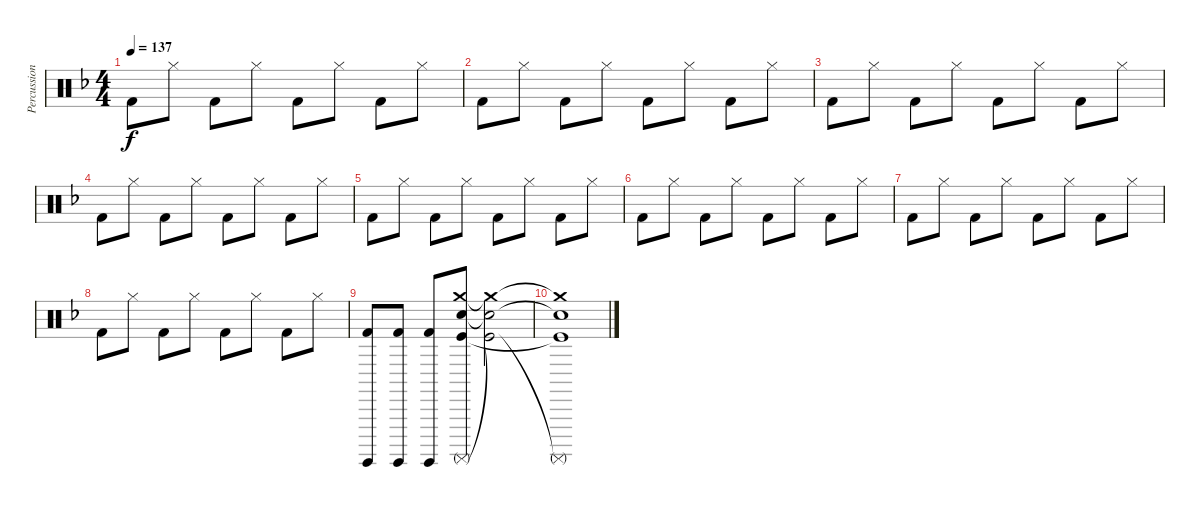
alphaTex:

\track ("Percussion" "Percussion") {instrument percussion}
\staff {score}
\articulation defaults
\ts (4 4)
\tempo 137
\clef neutral
\ks f "Kick (hit) 2".8{dy f} "Hi-Hat (closed)".8 "Kick (hit) 2".8 "Hi-Hat (closed)".8 "Kick (hit) 2".8 "Hi-Hat (closed)".8 "Kick (hit) 2".8 "Hi-Hat (closed)".8
|
"Kick (hit) 2".8 "Hi-Hat (closed)".8 "Kick (hit) 2".8 "Hi-Hat (closed)".8 "Kick (hit) 2".8 "Hi-Hat (closed)".8 "Kick (hit) 2".8 "Hi-Hat (closed)".8 |
"Kick (hit) 2".8 "Hi-Hat (closed)".8 "Kick (hit) 2".8 "Hi-Hat (closed)".8 "Kick (hit) 2".8 "Hi-Hat (closed)".8 "Kick (hit) 2".8 "Hi-Hat (closed)".8 |
"Kick (hit) 2".8 "Hi-Hat (closed)".8 "Kick (hit) 2".8 "Hi-Hat (closed)".8 "Kick (hit) 2".8 "Hi-Hat (closed)".8 "Kick (hit) 2".8 "Hi-Hat (closed)".8 |
"Kick (hit) 2".8 "Hi-Hat (closed)".8 "Kick (hit) 2".8 "Hi-Hat (closed)".8 "Kick (hit) 2".8 "Hi-Hat (closed)".8 "Kick (hit) 2".8 "Hi-Hat (closed)".8 |
"Kick (hit) 2".8 "Hi-Hat (closed)".8 "Kick (hit) 2".8 "Hi-Hat (closed)".8 "Kick (hit) 2".8 "Hi-Hat (closed)".8 "Kick (hit) 2".8 "Hi-Hat (closed)".8 |
"Kick (hit) 2".8 "Hi-Hat (closed)".8 "Kick (hit) 2".8 "Hi-Hat (closed)".8 "Kick (hit) 2".8 "Hi-Hat (closed)".8 "Kick (hit) 2".8 "Hi-Hat (closed)".8 |
"Kick (hit) 2".8 "Hi-Hat (closed)".8 "Kick (hit) 2".8 "Hi-Hat (closed)".8 "Kick (hit) 2".8 "Hi-Hat (closed)".8 "Kick (hit) 2".8 "Hi-Hat (closed)".8 |
("Surdo (hit)" "Kick (hit) 2").8 ("Surdo (hit)" "Kick (hit) 2").8 ("Surdo (hit)" "Kick (hit) 2").8 ("Crash medium (hit)" "Electric Snare (hit)" "Surdo (mute)" "Kick (hit)").8 ("Crash medium (hit)"{t} "Electric Snare (hit)"{t} "Kick (hit)"{t}).2 |
("Crash medium (hit)"{t} "Electric Snare (hit)"{t} "Surdo (mute)"{t} "Kick (hit)"{t}).1
